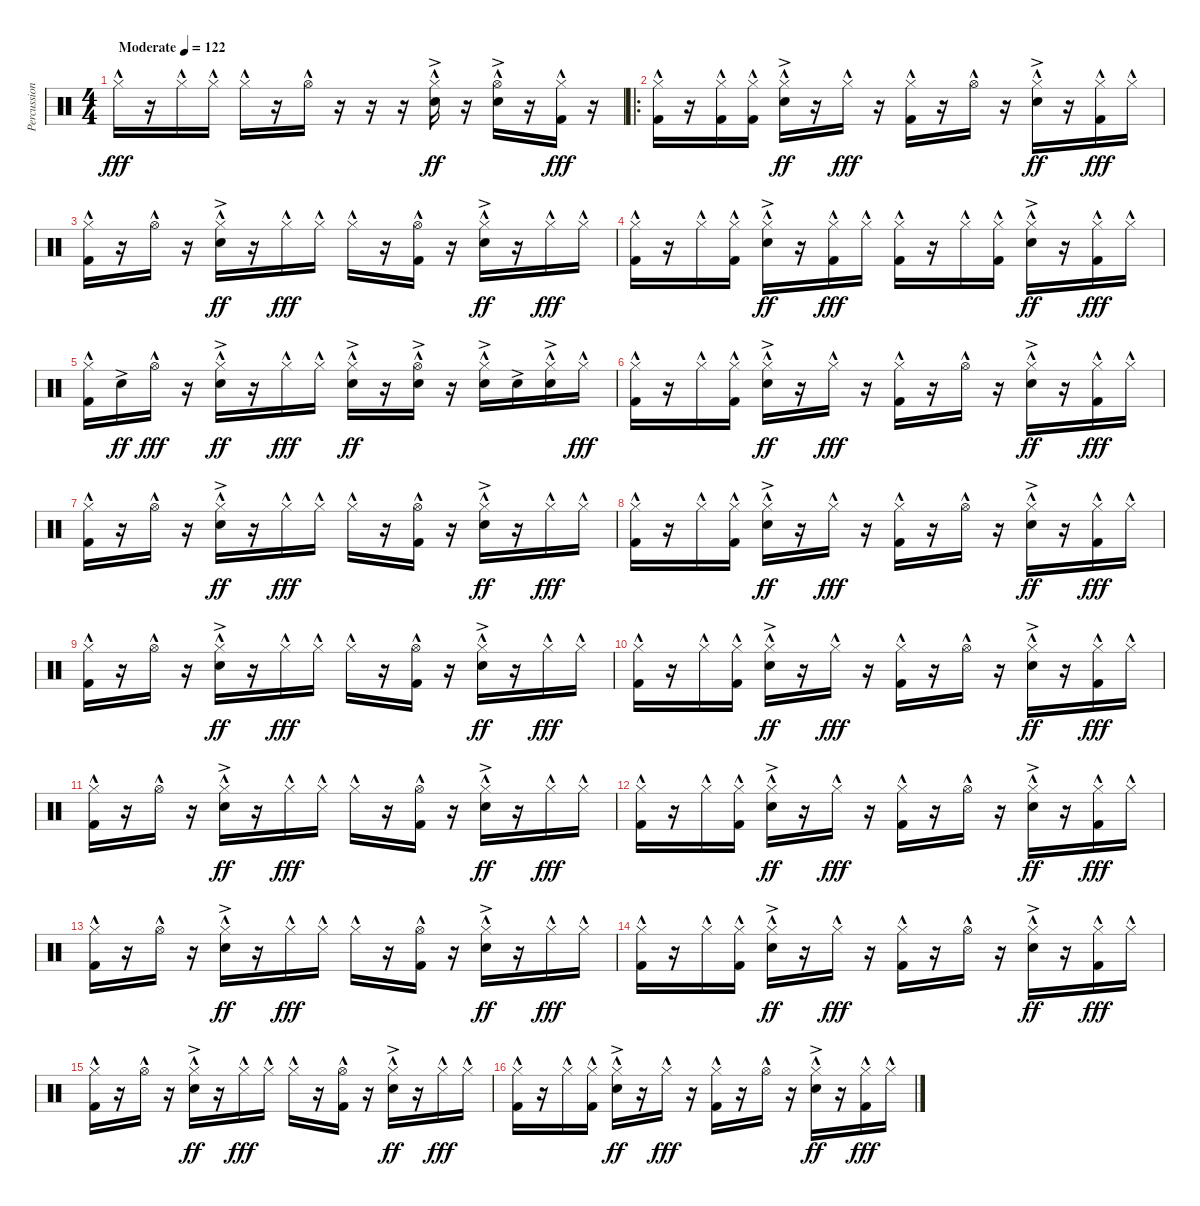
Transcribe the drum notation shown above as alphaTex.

\track ("Percussion" "Percussion") {instrument percussion}
\staff {score}
\articulation defaults
\ts (4 4)
\tempo (122 "Moderate")
\clef neutral
\ks c "Hi-Hat (closed)"{hac}.16{dy fff}
r.16 "Hi-Hat (closed)"{hac}.16 "Hi-Hat (closed)"{hac}.16 "Hi-Hat (closed)"{hac}.16 r.16 "Hi-Hat (open)"{hac}.16 r.16 r.16 r.16 ("Hi-Hat (closed)"{hac} "Snare (hit) 2"{ac}).16{dy ff} r.16 ("Hi-Hat (open)"{hac} "Snare (hit) 2"{ac}).16 r.16 ("Hi-Hat (closed)"{hac} "Kick (hit) 2"{hac}).16{dy fff} r.16 |
\ro
("Hi-Hat (closed)"{hac} "Kick (hit) 2"{hac}).16 r.16 ("Hi-Hat (closed)"{hac} "Kick (hit) 2"{hac}).16 ("Hi-Hat (closed)"{hac} "Kick (hit) 2"{hac}).16 ("Hi-Hat (closed)"{hac} "Snare (hit) 2"{ac}).16{dy ff} r.16 "Hi-Hat (closed)"{hac}.16{dy fff} r.16 ("Hi-Hat (closed)"{hac} "Kick (hit) 2"{hac}).16 r.16 "Hi-Hat (open)"{hac}.16 r.16 ("Hi-Hat (closed)"{hac} "Snare (hit) 2"{ac}).16{dy ff} r.16 ("Hi-Hat (closed)"{hac} "Kick (hit) 2"{hac}).16{dy fff} "Hi-Hat (closed)"{hac}.16 |
("Hi-Hat (closed)"{hac} "Kick (hit) 2"{hac}).16 r.16 "Hi-Hat (open)"{hac}.16 r.16 ("Hi-Hat (closed)"{hac} "Snare (hit) 2"{ac}).16{dy ff} r.16 "Hi-Hat (closed)"{hac}.16{dy fff} "Hi-Hat (closed)"{hac}.16 "Hi-Hat (closed)"{hac}.16 r.16 ("Hi-Hat (open)"{hac} "Kick (hit) 2"{hac}).16 r.16 ("Hi-Hat (closed)"{hac} "Snare (hit) 2"{ac}).16{dy ff} r.16 "Hi-Hat (closed)"{hac}.16{dy fff} "Hi-Hat (closed)"{hac}.16 |
("Hi-Hat (closed)"{hac} "Kick (hit) 2"{hac}).16 r.16 "Hi-Hat (closed)"{hac}.16 ("Hi-Hat (closed)"{hac} "Kick (hit) 2"{hac}).16 ("Hi-Hat (closed)"{hac} "Snare (hit) 2"{ac}).16{dy ff} r.16 ("Hi-Hat (closed)"{hac} "Kick (hit) 2"{hac}).16{dy fff} "Hi-Hat (closed)"{hac}.16 ("Hi-Hat (closed)"{hac} "Kick (hit) 2"{hac}).16 r.16 "Hi-Hat (closed)"{hac}.16 ("Hi-Hat (closed)"{hac} "Kick (hit) 2"{hac}).16 ("Hi-Hat (closed)"{hac} "Snare (hit) 2"{ac}).16{dy ff} r.16 ("Hi-Hat (closed)"{hac} "Kick (hit) 2"{hac}).16{dy fff} "Hi-Hat (closed)"{hac}.16 |
("Hi-Hat (closed)"{hac} "Kick (hit) 2"{hac}).16 "Snare (hit) 2"{ac}.16{dy ff} "Hi-Hat (open)"{hac}.16{dy fff} r.16 ("Hi-Hat (closed)"{hac} "Snare (hit) 2"{ac}).16{dy ff} r.16 "Hi-Hat (closed)"{hac}.16{dy fff} "Hi-Hat (closed)"{hac}.16 ("Hi-Hat (closed)"{hac} "Snare (hit) 2"{ac}).16{dy ff} r.16 ("Hi-Hat (open)"{hac} "Snare (hit) 2"{ac}).16 r.16 ("Hi-Hat (closed)"{hac} "Snare (hit) 2"{ac}).16 "Snare (hit) 2"{ac}.16 ("Hi-Hat (closed)"{hac} "Snare (hit) 2"{ac}).16 "Hi-Hat (closed)"{hac}.16{dy fff} |
("Hi-Hat (closed)"{hac} "Kick (hit) 2"{hac}).16 r.16 "Hi-Hat (closed)"{hac}.16 ("Hi-Hat (closed)"{hac} "Kick (hit) 2"{hac}).16 ("Hi-Hat (closed)"{hac} "Snare (hit) 2"{ac}).16{dy ff} r.16 "Hi-Hat (closed)"{hac}.16{dy fff} r.16 ("Hi-Hat (closed)"{hac} "Kick (hit) 2"{hac}).16 r.16 "Hi-Hat (open)"{hac}.16 r.16 ("Hi-Hat (closed)"{hac} "Snare (hit) 2"{ac}).16{dy ff} r.16 ("Hi-Hat (closed)"{hac} "Kick (hit) 2"{hac}).16{dy fff} "Hi-Hat (closed)"{hac}.16 |
("Hi-Hat (closed)"{hac} "Kick (hit) 2"{hac}).16 r.16 "Hi-Hat (open)"{hac}.16 r.16 ("Hi-Hat (closed)"{hac} "Snare (hit) 2"{ac}).16{dy ff} r.16 "Hi-Hat (closed)"{hac}.16{dy fff} "Hi-Hat (closed)"{hac}.16 "Hi-Hat (closed)"{hac}.16 r.16 ("Hi-Hat (open)"{hac} "Kick (hit) 2"{hac}).16 r.16 ("Hi-Hat (closed)"{hac} "Snare (hit) 2"{ac}).16{dy ff} r.16 "Hi-Hat (closed)"{hac}.16{dy fff} "Hi-Hat (closed)"{hac}.16 |
("Hi-Hat (closed)"{hac} "Kick (hit) 2"{hac}).16 r.16 "Hi-Hat (closed)"{hac}.16 ("Hi-Hat (closed)"{hac} "Kick (hit) 2"{hac}).16 ("Hi-Hat (closed)"{hac} "Snare (hit) 2"{ac}).16{dy ff} r.16 "Hi-Hat (closed)"{hac}.16{dy fff} r.16 ("Hi-Hat (closed)"{hac} "Kick (hit) 2"{hac}).16 r.16 "Hi-Hat (open)"{hac}.16 r.16 ("Hi-Hat (closed)"{hac} "Snare (hit) 2"{ac}).16{dy ff} r.16 ("Hi-Hat (closed)"{hac} "Kick (hit) 2"{hac}).16{dy fff} "Hi-Hat (closed)"{hac}.16 |
("Hi-Hat (closed)"{hac} "Kick (hit) 2"{hac}).16 r.16 "Hi-Hat (open)"{hac}.16 r.16 ("Hi-Hat (closed)"{hac} "Snare (hit) 2"{ac}).16{dy ff} r.16 "Hi-Hat (closed)"{hac}.16{dy fff} "Hi-Hat (closed)"{hac}.16 "Hi-Hat (closed)"{hac}.16 r.16 ("Hi-Hat (open)"{hac} "Kick (hit) 2"{hac}).16 r.16 ("Hi-Hat (closed)"{hac} "Snare (hit) 2"{ac}).16{dy ff} r.16 "Hi-Hat (closed)"{hac}.16{dy fff} "Hi-Hat (closed)"{hac}.16 |
("Hi-Hat (closed)"{hac} "Kick (hit) 2"{hac}).16 r.16 "Hi-Hat (closed)"{hac}.16 ("Hi-Hat (closed)"{hac} "Kick (hit) 2"{hac}).16 ("Hi-Hat (closed)"{hac} "Snare (hit) 2"{ac}).16{dy ff} r.16 "Hi-Hat (closed)"{hac}.16{dy fff} r.16 ("Hi-Hat (closed)"{hac} "Kick (hit) 2"{hac}).16 r.16 "Hi-Hat (open)"{hac}.16 r.16 ("Hi-Hat (closed)"{hac} "Snare (hit) 2"{ac}).16{dy ff} r.16 ("Hi-Hat (closed)"{hac} "Kick (hit) 2"{hac}).16{dy fff} "Hi-Hat (closed)"{hac}.16 |
("Hi-Hat (closed)"{hac} "Kick (hit) 2"{hac}).16 r.16 "Hi-Hat (open)"{hac}.16 r.16 ("Hi-Hat (closed)"{hac} "Snare (hit) 2"{ac}).16{dy ff} r.16 "Hi-Hat (closed)"{hac}.16{dy fff} "Hi-Hat (closed)"{hac}.16 "Hi-Hat (closed)"{hac}.16 r.16 ("Hi-Hat (open)"{hac} "Kick (hit) 2"{hac}).16 r.16 ("Hi-Hat (closed)"{hac} "Snare (hit) 2"{ac}).16{dy ff} r.16 "Hi-Hat (closed)"{hac}.16{dy fff} "Hi-Hat (closed)"{hac}.16 |
("Hi-Hat (closed)"{hac} "Kick (hit) 2"{hac}).16 r.16 "Hi-Hat (closed)"{hac}.16 ("Hi-Hat (closed)"{hac} "Kick (hit) 2"{hac}).16 ("Hi-Hat (closed)"{hac} "Snare (hit) 2"{ac}).16{dy ff} r.16 "Hi-Hat (closed)"{hac}.16{dy fff} r.16 ("Hi-Hat (closed)"{hac} "Kick (hit) 2"{hac}).16 r.16 "Hi-Hat (open)"{hac}.16 r.16 ("Hi-Hat (closed)"{hac} "Snare (hit) 2"{ac}).16{dy ff} r.16 ("Hi-Hat (closed)"{hac} "Kick (hit) 2"{hac}).16{dy fff} "Hi-Hat (closed)"{hac}.16 |
("Hi-Hat (closed)"{hac} "Kick (hit) 2"{hac}).16 r.16 "Hi-Hat (open)"{hac}.16 r.16 ("Hi-Hat (closed)"{hac} "Snare (hit) 2"{ac}).16{dy ff} r.16 "Hi-Hat (closed)"{hac}.16{dy fff} "Hi-Hat (closed)"{hac}.16 "Hi-Hat (closed)"{hac}.16 r.16 ("Hi-Hat (open)"{hac} "Kick (hit) 2"{hac}).16 r.16 ("Hi-Hat (closed)"{hac} "Snare (hit) 2"{ac}).16{dy ff} r.16 "Hi-Hat (closed)"{hac}.16{dy fff} "Hi-Hat (closed)"{hac}.16 |
("Hi-Hat (closed)"{hac} "Kick (hit) 2"{hac}).16 r.16 "Hi-Hat (closed)"{hac}.16 ("Hi-Hat (closed)"{hac} "Kick (hit) 2"{hac}).16 ("Hi-Hat (closed)"{hac} "Snare (hit) 2"{ac}).16{dy ff} r.16 "Hi-Hat (closed)"{hac}.16{dy fff} r.16 ("Hi-Hat (closed)"{hac} "Kick (hit) 2"{hac}).16 r.16 "Hi-Hat (open)"{hac}.16 r.16 ("Hi-Hat (closed)"{hac} "Snare (hit) 2"{ac}).16{dy ff} r.16 ("Hi-Hat (closed)"{hac} "Kick (hit) 2"{hac}).16{dy fff} "Hi-Hat (closed)"{hac}.16 |
("Hi-Hat (closed)"{hac} "Kick (hit) 2"{hac}).16 r.16 "Hi-Hat (open)"{hac}.16 r.16 ("Hi-Hat (closed)"{hac} "Snare (hit) 2"{ac}).16{dy ff} r.16 "Hi-Hat (closed)"{hac}.16{dy fff} "Hi-Hat (closed)"{hac}.16 "Hi-Hat (closed)"{hac}.16 r.16 ("Hi-Hat (open)"{hac} "Kick (hit) 2"{hac}).16 r.16 ("Hi-Hat (closed)"{hac} "Snare (hit) 2"{ac}).16{dy ff} r.16 "Hi-Hat (closed)"{hac}.16{dy fff} "Hi-Hat (closed)"{hac}.16 |
("Hi-Hat (closed)"{hac} "Kick (hit) 2"{hac}).16 r.16 "Hi-Hat (closed)"{hac}.16 ("Hi-Hat (closed)"{hac} "Kick (hit) 2"{hac}).16 ("Hi-Hat (closed)"{hac} "Snare (hit) 2"{ac}).16{dy ff} r.16 "Hi-Hat (closed)"{hac}.16{dy fff} r.16 ("Hi-Hat (closed)"{hac} "Kick (hit) 2"{hac}).16 r.16 "Hi-Hat (open)"{hac}.16 r.16 ("Hi-Hat (closed)"{hac} "Snare (hit) 2"{ac}).16{dy ff} r.16 ("Hi-Hat (closed)"{hac} "Kick (hit) 2"{hac}).16{dy fff} "Hi-Hat (closed)"{hac}.16
